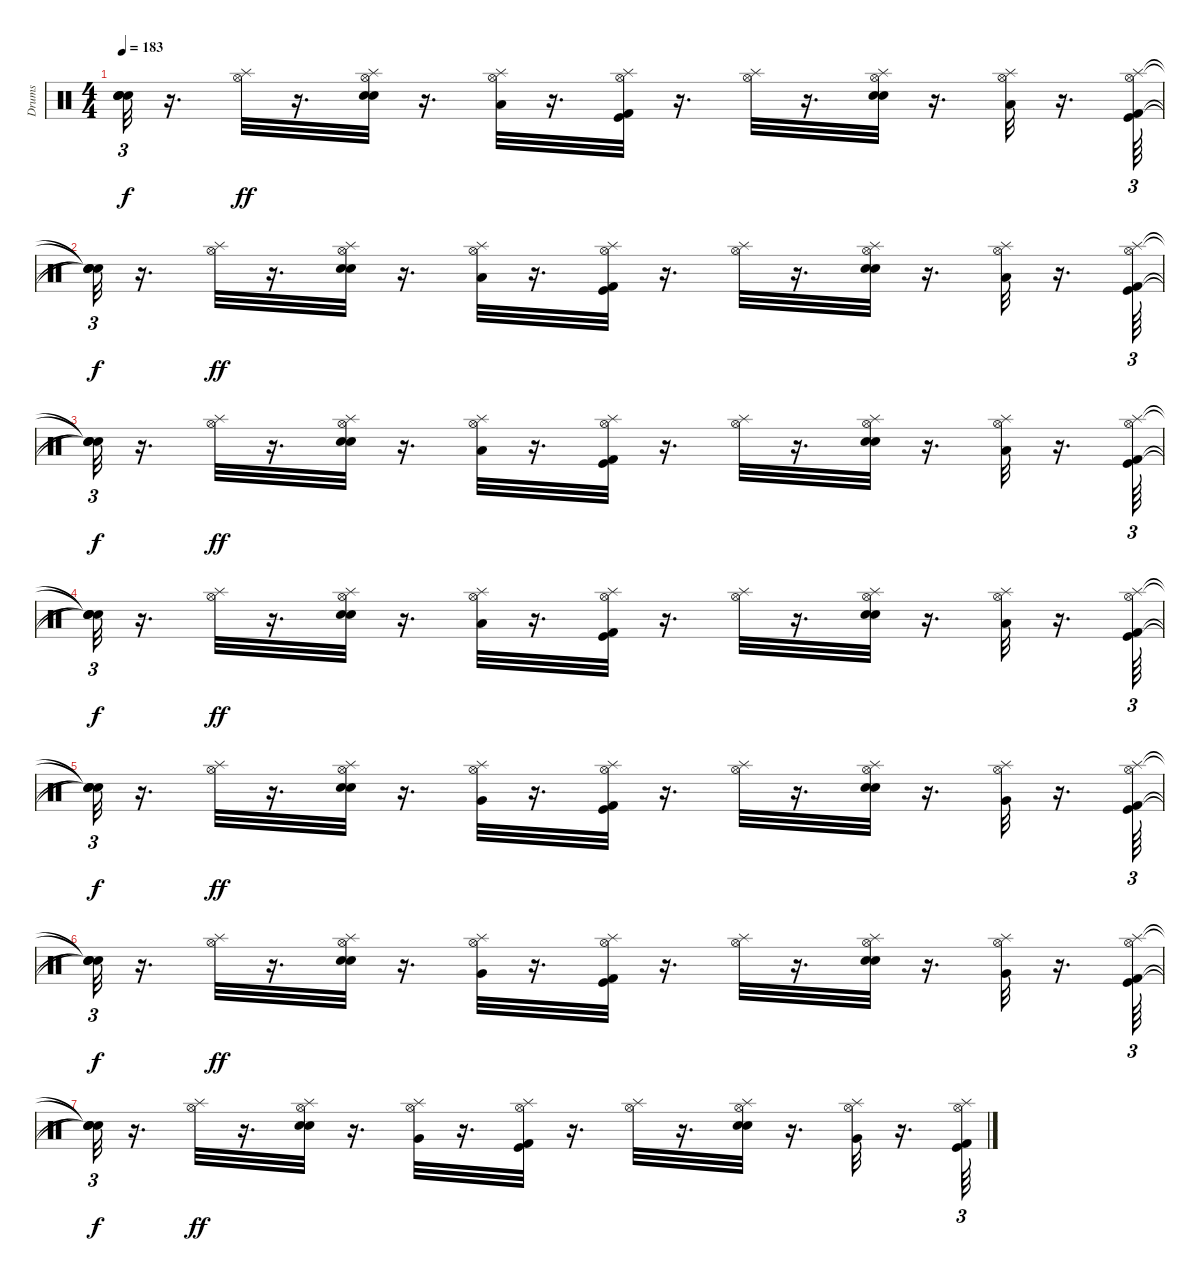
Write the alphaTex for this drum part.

\track ("Drums" "Drums") {instrument percussion}
\staff {score}
\articulation defaults
\ts (4 4)
\tempo 183
\clef neutral
\ks c
("Snare (hit)"{t} "Snare (hit)"{t} "Snare (hit)"{t} "Snare (hit)"{t}).32{tu (3 2) dy f} r.16{d} ("Hi-Hat (open)" "Splash (hit)").32{dy ff} r.16{d} ("Electric Snare (hit)" "Snare (hit) 2" "Hi-Hat (open)" "Splash (hit)").32 r.16{d} ("Low Tom (hit)" "Splash (hit)" "Hi-Hat (open)").32 r.16{d} ("Kick (hit) 2" "Kick (hit)" "Hi-Hat (open)" "Splash (hit)").32 r.16{d} ("Hi-Hat (open)" "Splash (hit)").32 r.16{d} ("Electric Snare (hit)" "Hi-Hat (open)" "Splash (hit)" "Snare (hit) 2").32 r.16{d} ("Hi-Hat (open)" "Low Tom (hit)" "Splash (hit)").32 r.16{d} ("Hi-Hat (open)" "Splash (hit)" "Kick (hit) 2" "Kick (hit)").64{tu (3 2)} |
("Snare (hit)"{t} "Snare (hit)"{t} "Snare (hit)"{t} "Snare (hit)"{t}).32{tu (3 2) dy f} r.16{d} ("Splash (hit)" "Hi-Hat (open)").32{dy ff} r.16{d} ("Hi-Hat (open)" "Electric Snare (hit)" "Splash (hit)" "Snare (hit) 2").32 r.16{d} ("Low Tom (hit)" "Splash (hit)" "Hi-Hat (open)").32 r.16{d} ("Splash (hit)" "Kick (hit)" "Hi-Hat (open)" "Kick (hit) 2").32 r.16{d} ("Splash (hit)" "Hi-Hat (open)").32 r.16{d} ("Snare (hit) 2" "Electric Snare (hit)" "Hi-Hat (open)" "Splash (hit)").32 r.16{d} ("Hi-Hat (open)" "Splash (hit)" "Low Tom (hit)").32 r.16{d} ("Kick (hit)" "Kick (hit) 2" "Hi-Hat (open)" "Splash (hit)").64{tu (3 2)} |
("Snare (hit)"{t} "Snare (hit)"{t} "Snare (hit)"{t} "Snare (hit)"{t}).32{tu (3 2) dy f} r.16{d} ("Splash (hit)" "Hi-Hat (open)").32{dy ff} r.16{d} ("Electric Snare (hit)" "Splash (hit)" "Hi-Hat (open)" "Snare (hit) 2").32 r.16{d} ("Low Tom (hit)" "Hi-Hat (open)" "Splash (hit)").32 r.16{d} ("Kick (hit) 2" "Kick (hit)" "Splash (hit)" "Hi-Hat (open)").32 r.16{d} ("Splash (hit)" "Hi-Hat (open)").32 r.16{d} ("Electric Snare (hit)" "Splash (hit)" "Hi-Hat (open)" "Snare (hit) 2").32 r.16{d} ("Low Tom (hit)" "Splash (hit)" "Hi-Hat (open)").32 r.16{d} ("Hi-Hat (open)" "Splash (hit)" "Kick (hit)" "Kick (hit) 2").64{tu (3 2)} |
("Snare (hit)"{t} "Snare (hit)"{t} "Snare (hit)"{t} "Snare (hit)"{t}).32{tu (3 2) dy f} r.16{d} ("Hi-Hat (open)" "Splash (hit)").32{dy ff} r.16{d} ("Snare (hit) 2" "Hi-Hat (open)" "Splash (hit)" "Electric Snare (hit)").32 r.16{d} ("Hi-Hat (open)" "Low Tom (hit)" "Splash (hit)").32 r.16{d} ("Kick (hit)" "Splash (hit)" "Kick (hit) 2" "Hi-Hat (open)").32 r.16{d} ("Splash (hit)" "Hi-Hat (open)").32 r.16{d} ("Snare (hit) 2" "Electric Snare (hit)" "Hi-Hat (open)" "Splash (hit)").32 r.16{d} ("Splash (hit)" "Hi-Hat (open)" "Low Tom (hit)").32 r.16{d} ("Kick (hit) 2" "Hi-Hat (open)" "Splash (hit)" "Kick (hit)").64{tu (3 2)} |
("Snare (hit)"{t} "Snare (hit)"{t} "Snare (hit)"{t} "Snare (hit)"{t}).32{tu (3 2) dy f} r.16{d} ("Hi-Hat (open)" "Splash (hit)").32{dy ff} r.16{d} ("Snare (hit) 2" "Electric Snare (hit)" "Hi-Hat (open)" "Splash (hit)").32 r.16{d} ("Hi-Hat (open)" "Splash (hit)" "Very Low Tom (hit)").32 r.16{d} ("Splash (hit)" "Hi-Hat (open)" "Kick (hit) 2" "Kick (hit)").32 r.16{d} ("Hi-Hat (open)" "Splash (hit)").32 r.16{d} ("Splash (hit)" "Snare (hit) 2" "Hi-Hat (open)" "Electric Snare (hit)").32 r.16{d} ("Very Low Tom (hit)" "Splash (hit)" "Hi-Hat (open)").32 r.16{d} ("Kick (hit)" "Hi-Hat (open)" "Kick (hit) 2" "Splash (hit)").64{tu (3 2)} |
("Snare (hit)"{t} "Snare (hit)"{t} "Snare (hit)"{t} "Snare (hit)"{t}).32{tu (3 2) dy f} r.16{d} ("Splash (hit)" "Hi-Hat (open)").32{dy ff} r.16{d} ("Electric Snare (hit)" "Snare (hit) 2" "Splash (hit)" "Hi-Hat (open)").32 r.16{d} ("Hi-Hat (open)" "Very Low Tom (hit)" "Splash (hit)").32{volume 14} r.16{d} ("Kick (hit) 2" "Splash (hit)" "Hi-Hat (open)" "Kick (hit)").32 r.16{d} ("Splash (hit)" "Hi-Hat (open)").32{volume 14} r.16{d} ("Electric Snare (hit)" "Splash (hit)" "Snare (hit) 2" "Hi-Hat (open)").32 r.16{d} ("Hi-Hat (open)" "Very Low Tom (hit)" "Splash (hit)").32{volume 14} r.16{d} ("Kick (hit) 2" "Splash (hit)" "Kick (hit)" "Hi-Hat (open)").64{tu (3 2)} |
("Snare (hit)"{t} "Snare (hit)"{t} "Snare (hit)"{t} "Snare (hit)"{t}).32{tu (3 2) dy f} r.16{d} ("Hi-Hat (open)" "Splash (hit)").32{dy ff} r.16{d} ("Electric Snare (hit)" "Snare (hit) 2" "Splash (hit)" "Hi-Hat (open)").32{volume 14} r.16{d} ("Very Low Tom (hit)" "Hi-Hat (open)" "Splash (hit)").32 r.16{d} ("Kick (hit) 2" "Kick (hit)" "Hi-Hat (open)" "Splash (hit)").32{volume 14} r.16{d} ("Hi-Hat (open)" "Splash (hit)").32{volume 14} r.16{d} ("Hi-Hat (open)" "Electric Snare (hit)" "Splash (hit)" "Snare (hit) 2").32 r.16{d} ("Very Low Tom (hit)" "Hi-Hat (open)" "Splash (hit)").32{volume 14} r.16{d} ("Kick (hit) 2" "Kick (hit)" "Splash (hit)" "Hi-Hat (open)").64{tu (3 2)}
